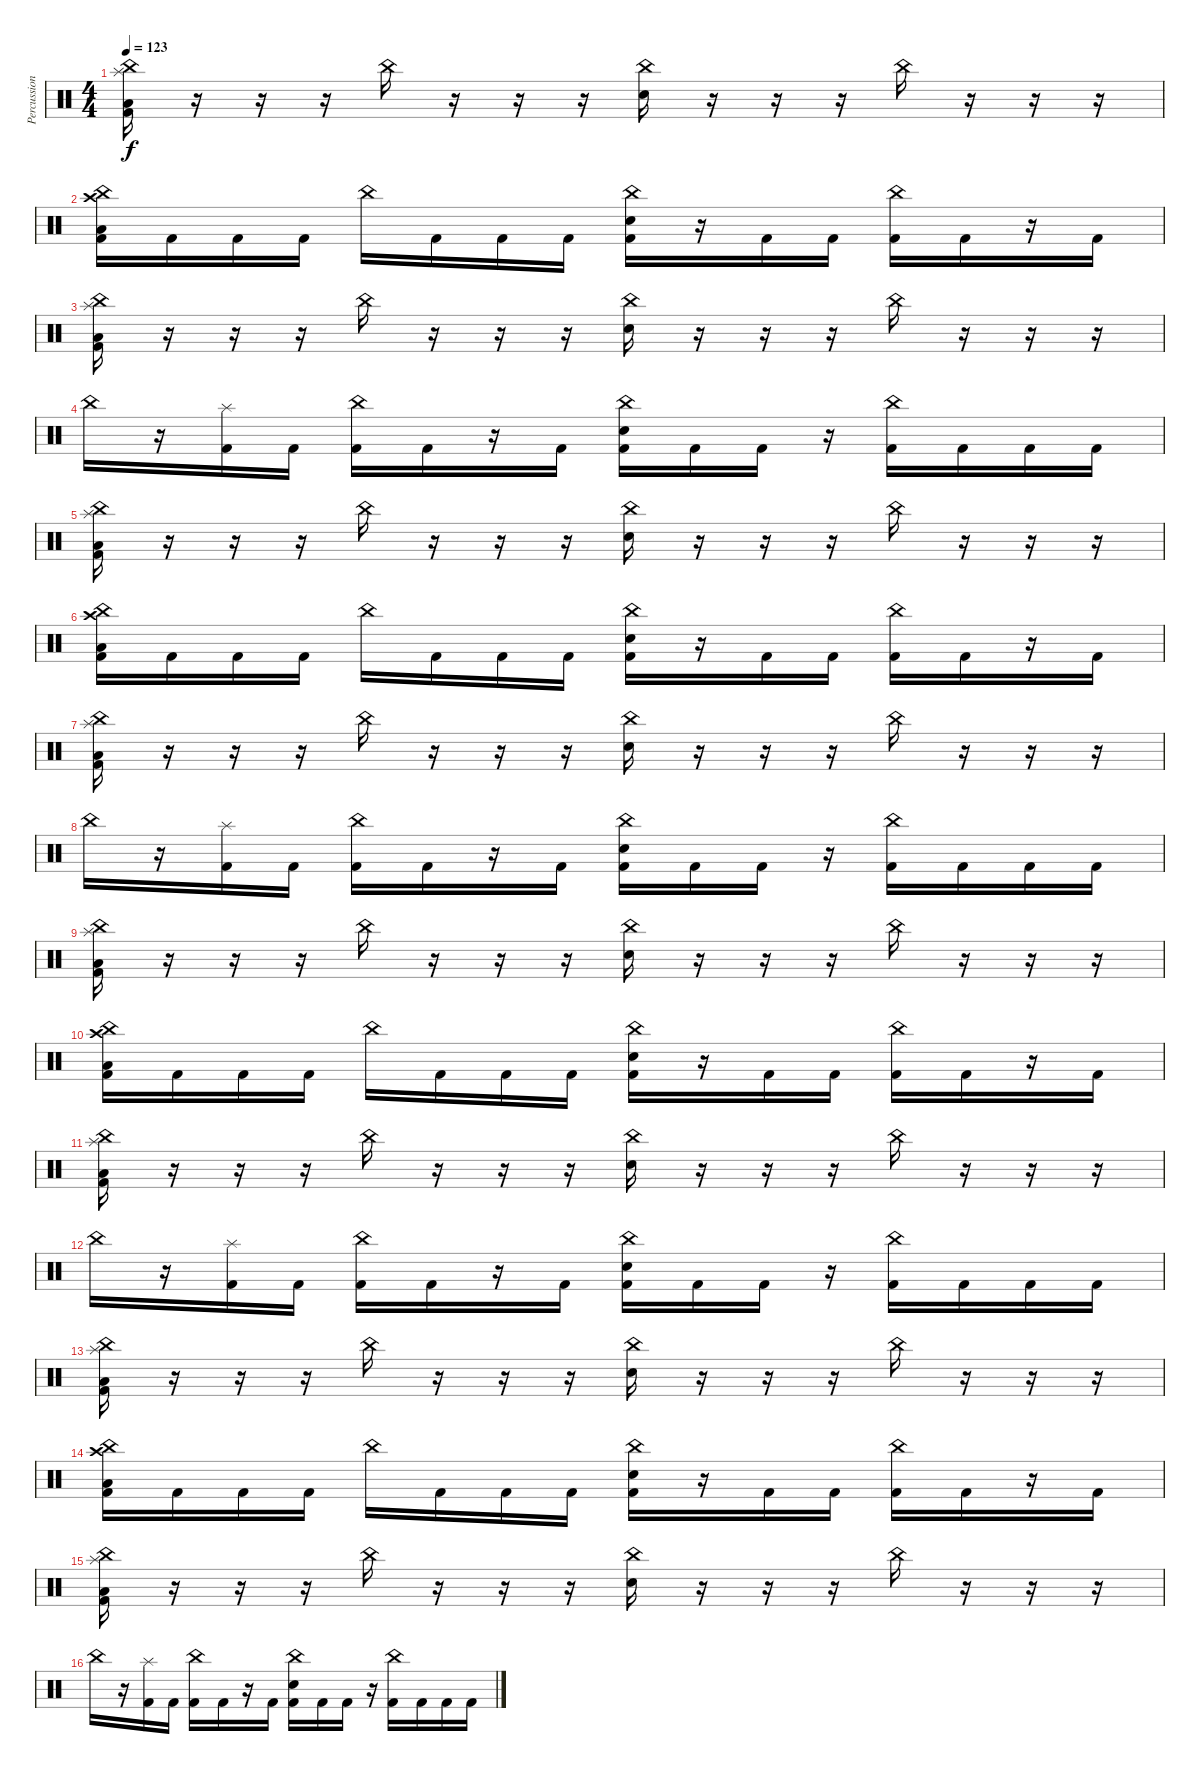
\track ("Percussion" "Percussion") {instrument percussion}
\staff {score}
\articulation defaults
\ts (4 4)
\tempo 123
\clef neutral
\ks c
("China (hit)" "Splash (hit)" "Low Floor Tom (hit)" "Kick (hit) 2").16{dy f} r.16 r.16 r.16 "China (hit)".16 r.16 r.16 r.16 ("China (hit)" "Electric Snare (hit)").16 r.16 r.16 r.16 "China (hit)".16 r.16 r.16 r.16 |
("China (hit)" "Crash high (hit)" "Low Floor Tom (hit)" "Kick (hit) 2").16 "Kick (hit) 2".16 "Kick (hit) 2".16 "Kick (hit) 2".16 "China (hit)".16 "Kick (hit) 2".16 "Kick (hit) 2".16 "Kick (hit) 2".16 ("China (hit)" "Electric Snare (hit)" "Kick (hit) 2").16 r.16 "Kick (hit) 2".16 "Kick (hit) 2".16 ("China (hit)" "Kick (hit) 2").16 "Kick (hit) 2".16 r.16 "Kick (hit) 2".16 |
("China (hit)" "Splash (hit)" "Low Floor Tom (hit)" "Kick (hit) 2").16 r.16 r.16 r.16 "China (hit)".16 r.16 r.16 r.16 ("China (hit)" "Electric Snare (hit)").16 r.16 r.16 r.16 "China (hit)".16 r.16 r.16 r.16 |
"China (hit)".16 r.16 ("Splash (hit)" "Kick (hit) 2").16 "Kick (hit) 2".16 ("China (hit)" "Kick (hit) 2").16 "Kick (hit) 2".16 r.16 "Kick (hit) 2".16 ("China (hit)" "Electric Snare (hit)" "Kick (hit) 2").16 "Kick (hit) 2".16 "Kick (hit) 2".16 r.16 ("China (hit)" "Kick (hit) 2").16 "Kick (hit) 2".16 "Kick (hit) 2".16 "Kick (hit) 2".16 |
("China (hit)" "Splash (hit)" "Low Floor Tom (hit)" "Kick (hit) 2").16 r.16 r.16 r.16 "China (hit)".16 r.16 r.16 r.16 ("China (hit)" "Electric Snare (hit)").16 r.16 r.16 r.16 "China (hit)".16 r.16 r.16 r.16 |
("China (hit)" "Crash high (hit)" "Low Floor Tom (hit)" "Kick (hit) 2").16 "Kick (hit) 2".16 "Kick (hit) 2".16 "Kick (hit) 2".16 "China (hit)".16 "Kick (hit) 2".16 "Kick (hit) 2".16 "Kick (hit) 2".16 ("China (hit)" "Electric Snare (hit)" "Kick (hit) 2").16 r.16 "Kick (hit) 2".16 "Kick (hit) 2".16 ("China (hit)" "Kick (hit) 2").16 "Kick (hit) 2".16 r.16 "Kick (hit) 2".16 |
("China (hit)" "Splash (hit)" "Low Floor Tom (hit)" "Kick (hit) 2").16 r.16 r.16 r.16 "China (hit)".16 r.16 r.16 r.16 ("China (hit)" "Electric Snare (hit)").16 r.16 r.16 r.16 "China (hit)".16 r.16 r.16 r.16 |
"China (hit)".16 r.16 ("Splash (hit)" "Kick (hit) 2").16 "Kick (hit) 2".16 ("China (hit)" "Kick (hit) 2").16 "Kick (hit) 2".16 r.16 "Kick (hit) 2".16 ("China (hit)" "Electric Snare (hit)" "Kick (hit) 2").16 "Kick (hit) 2".16 "Kick (hit) 2".16 r.16 ("China (hit)" "Kick (hit) 2").16 "Kick (hit) 2".16 "Kick (hit) 2".16 "Kick (hit) 2".16 |
("China (hit)" "Splash (hit)" "Low Floor Tom (hit)" "Kick (hit) 2").16 r.16 r.16 r.16 "China (hit)".16 r.16 r.16 r.16 ("China (hit)" "Electric Snare (hit)").16 r.16 r.16 r.16 "China (hit)".16 r.16 r.16 r.16 |
("China (hit)" "Crash high (hit)" "Low Floor Tom (hit)" "Kick (hit) 2").16 "Kick (hit) 2".16 "Kick (hit) 2".16 "Kick (hit) 2".16 "China (hit)".16 "Kick (hit) 2".16 "Kick (hit) 2".16 "Kick (hit) 2".16 ("China (hit)" "Electric Snare (hit)" "Kick (hit) 2").16 r.16 "Kick (hit) 2".16 "Kick (hit) 2".16 ("China (hit)" "Kick (hit) 2").16 "Kick (hit) 2".16 r.16 "Kick (hit) 2".16 |
("China (hit)" "Splash (hit)" "Low Floor Tom (hit)" "Kick (hit) 2").16 r.16 r.16 r.16 "China (hit)".16 r.16 r.16 r.16 ("China (hit)" "Electric Snare (hit)").16 r.16 r.16 r.16 "China (hit)".16 r.16 r.16 r.16 |
"China (hit)".16 r.16 ("Splash (hit)" "Kick (hit) 2").16 "Kick (hit) 2".16 ("China (hit)" "Kick (hit) 2").16 "Kick (hit) 2".16 r.16 "Kick (hit) 2".16 ("China (hit)" "Electric Snare (hit)" "Kick (hit) 2").16 "Kick (hit) 2".16 "Kick (hit) 2".16 r.16 ("China (hit)" "Kick (hit) 2").16 "Kick (hit) 2".16 "Kick (hit) 2".16 "Kick (hit) 2".16 |
("China (hit)" "Splash (hit)" "Low Floor Tom (hit)" "Kick (hit) 2").16 r.16 r.16 r.16 "China (hit)".16 r.16 r.16 r.16 ("China (hit)" "Electric Snare (hit)").16 r.16 r.16 r.16 "China (hit)".16 r.16 r.16 r.16 |
("China (hit)" "Crash high (hit)" "Low Floor Tom (hit)" "Kick (hit) 2").16 "Kick (hit) 2".16 "Kick (hit) 2".16 "Kick (hit) 2".16 "China (hit)".16 "Kick (hit) 2".16 "Kick (hit) 2".16 "Kick (hit) 2".16 ("China (hit)" "Electric Snare (hit)" "Kick (hit) 2").16 r.16 "Kick (hit) 2".16 "Kick (hit) 2".16 ("China (hit)" "Kick (hit) 2").16 "Kick (hit) 2".16 r.16 "Kick (hit) 2".16 |
("China (hit)" "Splash (hit)" "Low Floor Tom (hit)" "Kick (hit) 2").16 r.16 r.16 r.16 "China (hit)".16 r.16 r.16 r.16 ("China (hit)" "Electric Snare (hit)").16 r.16 r.16 r.16 "China (hit)".16 r.16 r.16 r.16 |
"China (hit)".16 r.16 ("Splash (hit)" "Kick (hit) 2").16 "Kick (hit) 2".16 ("China (hit)" "Kick (hit) 2").16 "Kick (hit) 2".16 r.16 "Kick (hit) 2".16 ("China (hit)" "Electric Snare (hit)" "Kick (hit) 2").16 "Kick (hit) 2".16 "Kick (hit) 2".16 r.16 ("China (hit)" "Kick (hit) 2").16 "Kick (hit) 2".16 "Kick (hit) 2".16 "Kick (hit) 2".16
